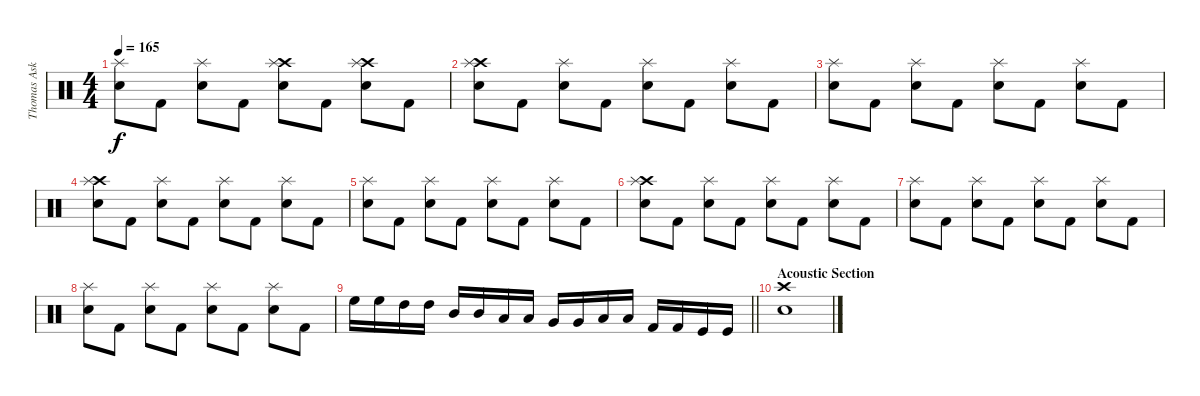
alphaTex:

\track ("Thomas Asklund" "Thomas Ask") {instrument percussion}
\staff {score}
\articulation defaults
\ts (4 4)
\tempo 165
\clef neutral
\ks c
("Splash (hit)" "Snare (hit) 2").8{dy f} "Kick (hit) 2".8 ("Splash (hit)" "Snare (hit) 2").8 "Kick (hit) 2".8 ("Crash high (hit)" "Splash (hit)" "Snare (hit) 2").8 "Kick (hit) 2".8 ("Crash high (hit)" "Splash (hit)" "Snare (hit) 2").8 "Kick (hit) 2".8 |
("Crash high (hit)" "Splash (hit)" "Snare (hit) 2").8 "Kick (hit) 2".8 ("Splash (hit)" "Snare (hit) 2").8 "Kick (hit) 2".8 ("Splash (hit)" "Snare (hit) 2").8 "Kick (hit) 2".8 ("Splash (hit)" "Snare (hit) 2").8 "Kick (hit) 2".8 |
("Splash (hit)" "Snare (hit) 2").8 "Kick (hit) 2".8 ("Splash (hit)" "Snare (hit) 2").8 "Kick (hit) 2".8 ("Splash (hit)" "Snare (hit) 2").8 "Kick (hit) 2".8 ("Splash (hit)" "Snare (hit) 2").8 "Kick (hit) 2".8 |
("Crash high (hit)" "Splash (hit)" "Snare (hit) 2").8 "Kick (hit) 2".8 ("Splash (hit)" "Snare (hit) 2").8 "Kick (hit) 2".8 ("Splash (hit)" "Snare (hit) 2").8 "Kick (hit) 2".8 ("Splash (hit)" "Snare (hit) 2").8 "Kick (hit) 2".8 |
("Splash (hit)" "Snare (hit) 2").8 "Kick (hit) 2".8 ("Splash (hit)" "Snare (hit) 2").8 "Kick (hit) 2".8 ("Splash (hit)" "Snare (hit) 2").8 "Kick (hit) 2".8 ("Splash (hit)" "Snare (hit) 2").8 "Kick (hit) 2".8 |
("Crash high (hit)" "Splash (hit)" "Snare (hit) 2").8 "Kick (hit) 2".8 ("Splash (hit)" "Snare (hit) 2").8 "Kick (hit) 2".8 ("Splash (hit)" "Snare (hit) 2").8 "Kick (hit) 2".8 ("Splash (hit)" "Snare (hit) 2").8 "Kick (hit) 2".8 |
("Splash (hit)" "Snare (hit) 2").8 "Kick (hit) 2".8 ("Splash (hit)" "Snare (hit) 2").8 "Kick (hit) 2".8 ("Splash (hit)" "Snare (hit) 2").8 "Kick (hit) 2".8 ("Splash (hit)" "Snare (hit) 2").8 "Kick (hit) 2".8 |
("Splash (hit)" "Snare (hit) 2").8 "Kick (hit) 2".8 ("Splash (hit)" "Snare (hit) 2").8 "Kick (hit) 2".8 ("Splash (hit)" "Snare (hit) 2").8 "Kick (hit) 2".8 ("Splash (hit)" "Snare (hit) 2").8 "Kick (hit) 2".8 |
\barLineRight lightlight "High Floor Tom (hit)".16 "High Floor Tom (hit)".16 "High Tom (hit)".16 "High Tom (hit)".16 "Mid Tom (hit)".16 "Mid Tom (hit)".16 "Low Tom (hit)".16 "Low Tom (hit)".16 "Very Low Tom (hit)".16 "Very Low Tom (hit)".16 "Low Floor Tom (hit)".16 "Low Floor Tom (hit)".16 "Kick (hit) 2".16 "Kick (hit) 2".16 "Kick (hit)".16 "Kick (hit)".16
|
\section ("" "Acoustic Section")
("Snare (hit) 2" "Crash high (hit)").1
